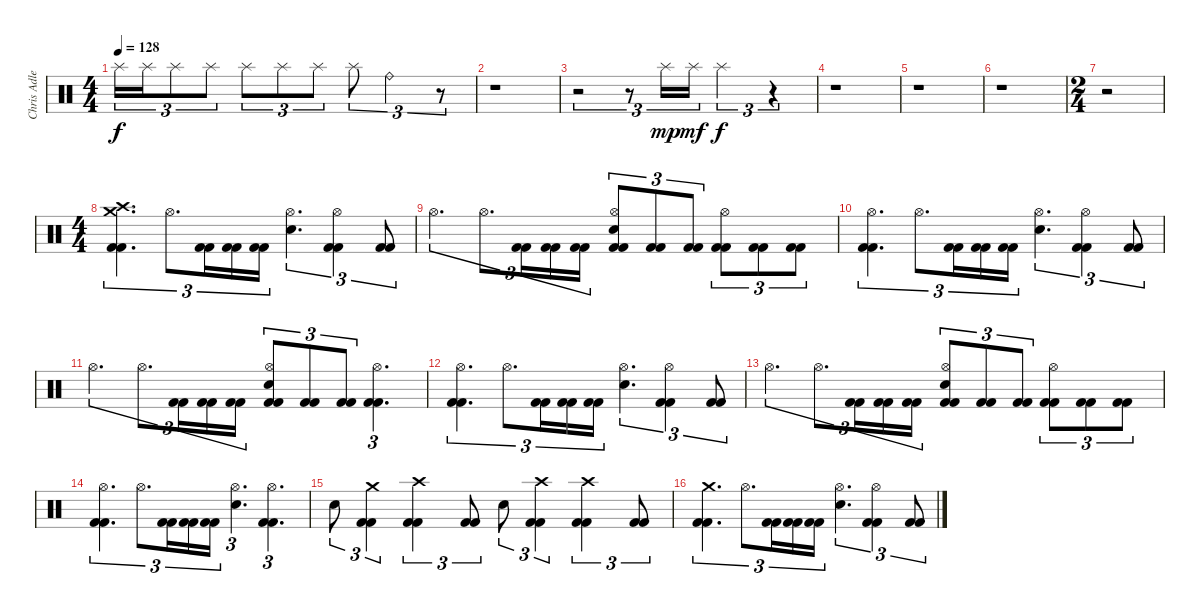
\track ("Chris Adler" "Chris Adle") {instrument percussion}
\staff {score}
\articulation defaults
\ts (4 4)
\tempo 128
\clef neutral
\ks c "Splash (hit)".16{tu (3 2) dy f} "Splash (hit)".16{tu (3 2)} "Splash (hit)".8{tu (3 2)} "Splash (hit)".8{tu (3 2)} "Splash (hit)".8{tu (3 2) balance 14} "Splash (hit)".8{tu (3 2) balance 8} "Splash (hit)".8{tu (3 2)} "Splash (hit)".8{tu (3 2)} "Ride (bell)".2{tu (3 2)}
r.8{tu (3 2)} |
r.1 |
r.2{tu (3 2)} r.8{tu (3 2)} "Splash (hit)".16{tu (3 2) dy mp} "Splash (hit)".16{tu (3 2) dy mf} "Splash (hit)".2{tu (3 2) dy f} r.4{tu (3 2)} |
r.1 |
r.1 |
r.1 |
\ts (2 4)
r.2 |
\ts (4 4)
("Crash medium (hit)" "Crash high (hit)" "Kick (hit) 2" "Kick (hit) 2").4{d tu (3 2)} "Hi-Hat (open)".8{d tu (3 2)} ("Kick (hit) 2" "Kick (hit) 2").16{tu (3 2)} ("Kick (hit) 2" "Kick (hit) 2").16{tu (3 2)} ("Kick (hit) 2" "Kick (hit) 2").16{tu (3 2)} ("Hi-Hat (open)" "Electric Snare (hit)").4{d tu (3 2)} ("Hi-Hat (open)" "Kick (hit) 2" "Kick (hit) 2").4{tu (3 2)} ("Kick (hit) 2" "Kick (hit) 2").8{tu (3 2)} |
"Hi-Hat (open)".4{d tu (3 2)} "Hi-Hat (open)".8{d tu (3 2)} ("Kick (hit) 2" "Kick (hit) 2").16{tu (3 2)} ("Kick (hit) 2" "Kick (hit) 2").16{tu (3 2)} ("Kick (hit) 2" "Kick (hit) 2").16{tu (3 2)} ("Hi-Hat (open)" "Electric Snare (hit)" "Kick (hit) 2" "Kick (hit) 2").8{tu (3 2)} ("Kick (hit) 2" "Kick (hit) 2").8{tu (3 2)} ("Kick (hit) 2" "Kick (hit) 2").8{tu (3 2)} ("Hi-Hat (open)" "Kick (hit) 2" "Kick (hit) 2").8{tu (3 2)} ("Kick (hit) 2" "Kick (hit) 2").8{tu (3 2)} ("Kick (hit) 2" "Kick (hit) 2").8{tu (3 2)} |
("Hi-Hat (open)" "Kick (hit) 2" "Kick (hit) 2").4{d tu (3 2)} "Hi-Hat (open)".8{d tu (3 2)} ("Kick (hit) 2" "Kick (hit) 2").16{tu (3 2)} ("Kick (hit) 2" "Kick (hit) 2").16{tu (3 2)} ("Kick (hit) 2" "Kick (hit) 2").16{tu (3 2)} ("Hi-Hat (open)" "Electric Snare (hit)").4{d tu (3 2)} ("Hi-Hat (open)" "Kick (hit) 2" "Kick (hit) 2").4{tu (3 2)} ("Kick (hit) 2" "Kick (hit) 2").8{tu (3 2)} |
"Hi-Hat (open)".4{d tu (3 2)} "Hi-Hat (open)".8{d tu (3 2)} ("Kick (hit) 2" "Kick (hit) 2").16{tu (3 2)} ("Kick (hit) 2" "Kick (hit) 2").16{tu (3 2)} ("Kick (hit) 2" "Kick (hit) 2").16{tu (3 2)} ("Hi-Hat (open)" "Electric Snare (hit)" "Kick (hit) 2" "Kick (hit) 2").8{tu (3 2)} ("Kick (hit) 2" "Kick (hit) 2").8{tu (3 2)} ("Kick (hit) 2" "Kick (hit) 2").8{tu (3 2)} ("Hi-Hat (open)" "Kick (hit) 2" "Kick (hit) 2").4{d tu (3 2)} |
("Hi-Hat (open)" "Kick (hit) 2" "Kick (hit) 2").4{d tu (3 2)} "Hi-Hat (open)".8{d tu (3 2)} ("Kick (hit) 2" "Kick (hit) 2").16{tu (3 2)} ("Kick (hit) 2" "Kick (hit) 2").16{tu (3 2)} ("Kick (hit) 2" "Kick (hit) 2").16{tu (3 2)} ("Hi-Hat (open)" "Electric Snare (hit)").4{d tu (3 2)} ("Hi-Hat (open)" "Kick (hit) 2" "Kick (hit) 2").4{tu (3 2)} ("Kick (hit) 2" "Kick (hit) 2").8{tu (3 2)} |
"Hi-Hat (open)".4{d tu (3 2)} "Hi-Hat (open)".8{d tu (3 2)} ("Kick (hit) 2" "Kick (hit) 2").16{tu (3 2)} ("Kick (hit) 2" "Kick (hit) 2").16{tu (3 2)} ("Kick (hit) 2" "Kick (hit) 2").16{tu (3 2)} ("Hi-Hat (open)" "Electric Snare (hit)" "Kick (hit) 2" "Kick (hit) 2").8{tu (3 2)} ("Kick (hit) 2" "Kick (hit) 2").8{tu (3 2)} ("Kick (hit) 2" "Kick (hit) 2").8{tu (3 2)} ("Hi-Hat (open)" "Kick (hit) 2" "Kick (hit) 2").8{tu (3 2)} ("Kick (hit) 2" "Kick (hit) 2").8{tu (3 2)} ("Kick (hit) 2" "Kick (hit) 2").8{tu (3 2)} |
("Hi-Hat (open)" "Kick (hit) 2" "Kick (hit) 2").4{d tu (3 2)} "Hi-Hat (open)".8{d tu (3 2)} ("Kick (hit) 2" "Kick (hit) 2").16{tu (3 2)} ("Kick (hit) 2" "Kick (hit) 2").16{tu (3 2)} ("Kick (hit) 2" "Kick (hit) 2").16{tu (3 2)} ("Hi-Hat (open)" "Electric Snare (hit)").4{d tu (3 2)} ("Hi-Hat (open)" "Kick (hit) 2" "Kick (hit) 2").4{d tu (3 2)} |
"Electric Snare (hit)".8{tu (3 2)} ("Crash medium (hit)" "Kick (hit) 2" "Kick (hit) 2").4{tu (3 2)} ("Crash high (hit)" "Kick (hit) 2" "Kick (hit) 2").4{tu (3 2)} ("Kick (hit) 2" "Kick (hit) 2").8{tu (3 2)} "Electric Snare (hit)".8{tu (3 2)} ("Crash high (hit)" "Kick (hit) 2" "Kick (hit) 2").4{tu (3 2)} ("Crash high (hit)" "Kick (hit) 2" "Kick (hit) 2").4{tu (3 2)} ("Kick (hit) 2" "Kick (hit) 2").8{tu (3 2)} |
("Crash medium (hit)" "Kick (hit) 2" "Kick (hit) 2").4{d tu (3 2)} "Hi-Hat (open)".8{d tu (3 2)} ("Kick (hit) 2" "Kick (hit) 2").16{tu (3 2)} ("Kick (hit) 2" "Kick (hit) 2").16{tu (3 2)} ("Kick (hit) 2" "Kick (hit) 2").16{tu (3 2)} ("Hi-Hat (open)" "Electric Snare (hit)").4{d tu (3 2)} ("Hi-Hat (open)" "Kick (hit) 2" "Kick (hit) 2").4{tu (3 2)} ("Kick (hit) 2" "Kick (hit) 2").8{tu (3 2)}
